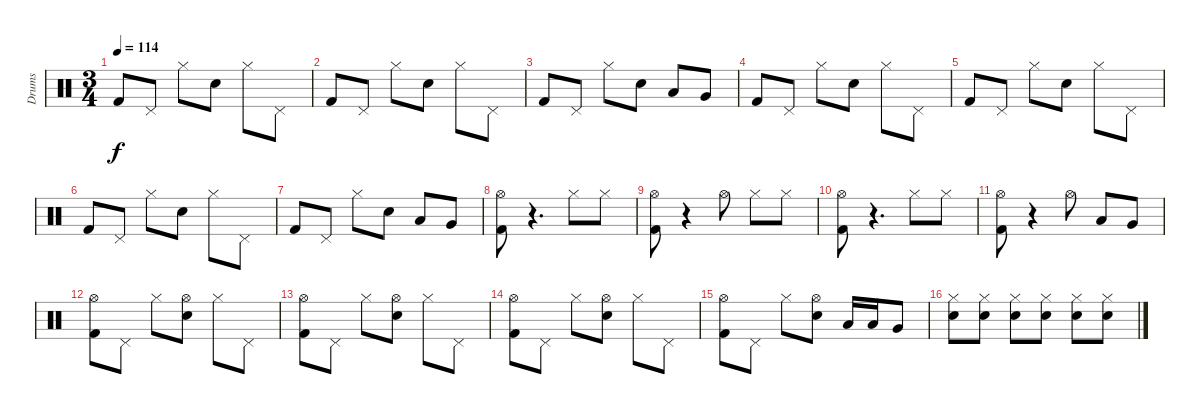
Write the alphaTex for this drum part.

\track ("Drums" "Drums") {instrument percussion}
\staff {score}
\articulation defaults
\ts (3 4)
\tempo 114
\clef neutral
\ks c "Kick (hit) 2".8{dy f} "Pedal Hi-Hat (hit)".8 "Hi-Hat (closed)".8 "Electric Snare (hit)".8 "Hi-Hat (closed)".8 "Pedal Hi-Hat (hit)".8
|
"Kick (hit) 2".8 "Pedal Hi-Hat (hit)".8 "Hi-Hat (closed)".8 "Electric Snare (hit)".8 "Hi-Hat (closed)".8 "Pedal Hi-Hat (hit)".8 |
"Kick (hit) 2".8 "Pedal Hi-Hat (hit)".8 "Hi-Hat (closed)".8 "Electric Snare (hit)".8 "Low Tom (hit)".8 "Very Low Tom (hit)".8 |
"Kick (hit) 2".8 "Pedal Hi-Hat (hit)".8 "Hi-Hat (closed)".8 "Electric Snare (hit)".8 "Hi-Hat (closed)".8 "Pedal Hi-Hat (hit)".8 |
"Kick (hit) 2".8 "Pedal Hi-Hat (hit)".8 "Hi-Hat (closed)".8 "Electric Snare (hit)".8 "Hi-Hat (closed)".8 "Pedal Hi-Hat (hit)".8 |
"Kick (hit) 2".8 "Pedal Hi-Hat (hit)".8 "Hi-Hat (closed)".8 "Electric Snare (hit)".8 "Hi-Hat (closed)".8 "Pedal Hi-Hat (hit)".8 |
"Kick (hit) 2".8 "Pedal Hi-Hat (hit)".8 "Hi-Hat (closed)".8 "Electric Snare (hit)".8 "Low Tom (hit)".8 "Very Low Tom (hit)".8 |
("Hi-Hat (open)" "Kick (hit) 2").8 r.4{d} "Hi-Hat (closed)".8 "Hi-Hat (closed)".8 |
("Hi-Hat (open)" "Kick (hit) 2").8 r.4 "Hi-Hat (open)".8 "Hi-Hat (closed)".8 "Hi-Hat (closed)".8 |
("Hi-Hat (open)" "Kick (hit) 2").8 r.4{d} "Hi-Hat (closed)".8 "Hi-Hat (closed)".8 |
("Hi-Hat (open)" "Kick (hit) 2").8 r.4 "Hi-Hat (open)".8 "Low Tom (hit)".8 "Very Low Tom (hit)".8 |
("Hi-Hat (open)" "Kick (hit) 2").8 "Pedal Hi-Hat (hit)".8 "Hi-Hat (closed)".8 ("Hi-Hat (open)" "Electric Snare (hit)").8 "Hi-Hat (closed)".8 "Pedal Hi-Hat (hit)".8 |
("Hi-Hat (open)" "Kick (hit) 2").8 "Pedal Hi-Hat (hit)".8 "Hi-Hat (closed)".8 ("Hi-Hat (open)" "Electric Snare (hit)").8 "Hi-Hat (closed)".8 "Pedal Hi-Hat (hit)".8 |
("Hi-Hat (open)" "Kick (hit) 2").8 "Pedal Hi-Hat (hit)".8 "Hi-Hat (closed)".8 ("Hi-Hat (open)" "Electric Snare (hit)").8 "Hi-Hat (closed)".8 "Pedal Hi-Hat (hit)".8 |
("Hi-Hat (open)" "Kick (hit) 2").8 "Pedal Hi-Hat (hit)".8 "Hi-Hat (closed)".8 ("Hi-Hat (open)" "Electric Snare (hit)").8 "Low Tom (hit)".16 "Low Tom (hit)".16 "Very Low Tom (hit)".8 |
("Hi-Hat (closed)" "Electric Snare (hit)").8 ("Hi-Hat (closed)" "Electric Snare (hit)").8 ("Hi-Hat (closed)" "Electric Snare (hit)").8 ("Hi-Hat (closed)" "Electric Snare (hit)").8 ("Hi-Hat (closed)" "Electric Snare (hit)").8 ("Hi-Hat (closed)" "Electric Snare (hit)").8
